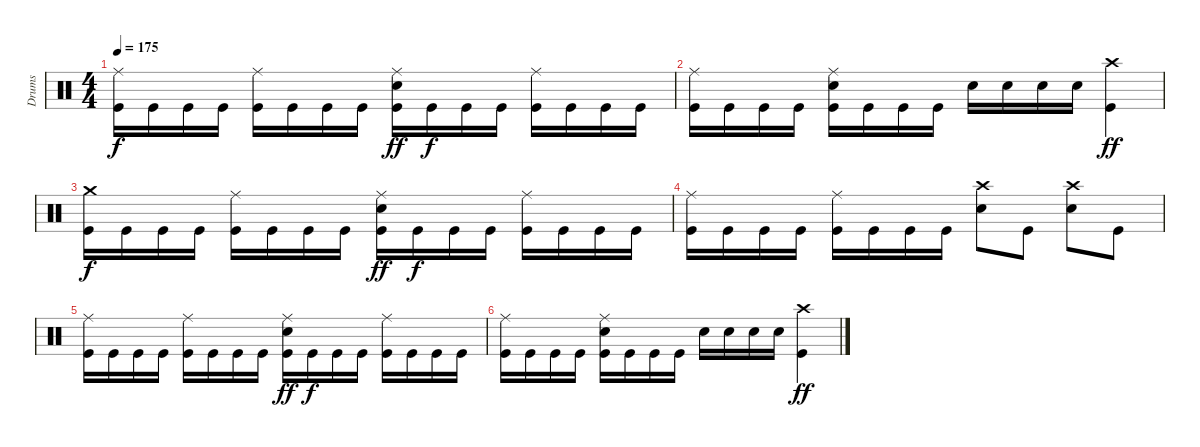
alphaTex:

\track ("Drums" "Drums") {instrument percussion}
\staff {score}
\articulation defaults
\ts (4 4)
\tempo 175
\clef neutral
\ks c
("Ride (middle)" "Kick (hit)").16{dy f} "Kick (hit)".16 "Kick (hit)".16 "Kick (hit)".16 ("Ride (middle)" "Kick (hit)").16 "Kick (hit)".16 "Kick (hit)".16 "Kick (hit)".16 ("Ride (middle)" "Snare (hit) 2" "Kick (hit)").16{dy ff} "Kick (hit)".16{dy f} "Kick (hit)".16 "Kick (hit)".16 ("Ride (middle)" "Kick (hit)").16 "Kick (hit)".16 "Kick (hit)".16 "Kick (hit)".16 |
("Ride (middle)" "Kick (hit)").16 "Kick (hit)".16 "Kick (hit)".16 "Kick (hit)".16 ("Ride (middle)" "Snare (hit) 2" "Kick (hit)").16 "Kick (hit)".16 "Kick (hit)".16 "Kick (hit)".16 "Snare (hit) 2".16 "Snare (hit) 2".16 "Snare (hit) 2".16 "Snare (hit) 2".16 ("Crash high (hit)" "Kick (hit)").4{dy ff} |
("Crash medium (hit)" "Kick (hit)").16{dy f} "Kick (hit)".16 "Kick (hit)".16 "Kick (hit)".16 ("Ride (middle)" "Kick (hit)").16 "Kick (hit)".16 "Kick (hit)".16 "Kick (hit)".16 ("Ride (middle)" "Snare (hit) 2" "Kick (hit)").16{dy ff} "Kick (hit)".16{dy f} "Kick (hit)".16 "Kick (hit)".16 ("Ride (middle)" "Kick (hit)").16 "Kick (hit)".16 "Kick (hit)".16 "Kick (hit)".16 |
("Ride (middle)" "Kick (hit)").16 "Kick (hit)".16 "Kick (hit)".16 "Kick (hit)".16 ("Ride (middle)" "Kick (hit)").16 "Kick (hit)".16 "Kick (hit)".16 "Kick (hit)".16 ("Crash high (hit)" "Snare (hit) 2").8 "Kick (hit)".8 ("Crash high (hit)" "Snare (hit) 2").8 "Kick (hit)".8 |
("Ride (middle)" "Kick (hit)").16 "Kick (hit)".16 "Kick (hit)".16 "Kick (hit)".16 ("Ride (middle)" "Kick (hit)").16 "Kick (hit)".16 "Kick (hit)".16 "Kick (hit)".16 ("Ride (middle)" "Snare (hit) 2" "Kick (hit)").16{dy ff} "Kick (hit)".16{dy f} "Kick (hit)".16 "Kick (hit)".16 ("Ride (middle)" "Kick (hit)").16 "Kick (hit)".16 "Kick (hit)".16 "Kick (hit)".16 |
("Ride (middle)" "Kick (hit)").16 "Kick (hit)".16 "Kick (hit)".16 "Kick (hit)".16 ("Ride (middle)" "Snare (hit) 2" "Kick (hit)").16 "Kick (hit)".16 "Kick (hit)".16 "Kick (hit)".16 "Snare (hit) 2".16 "Snare (hit) 2".16 "Snare (hit) 2".16 "Snare (hit) 2".16 ("Crash high (hit)" "Kick (hit)").4{dy ff}
